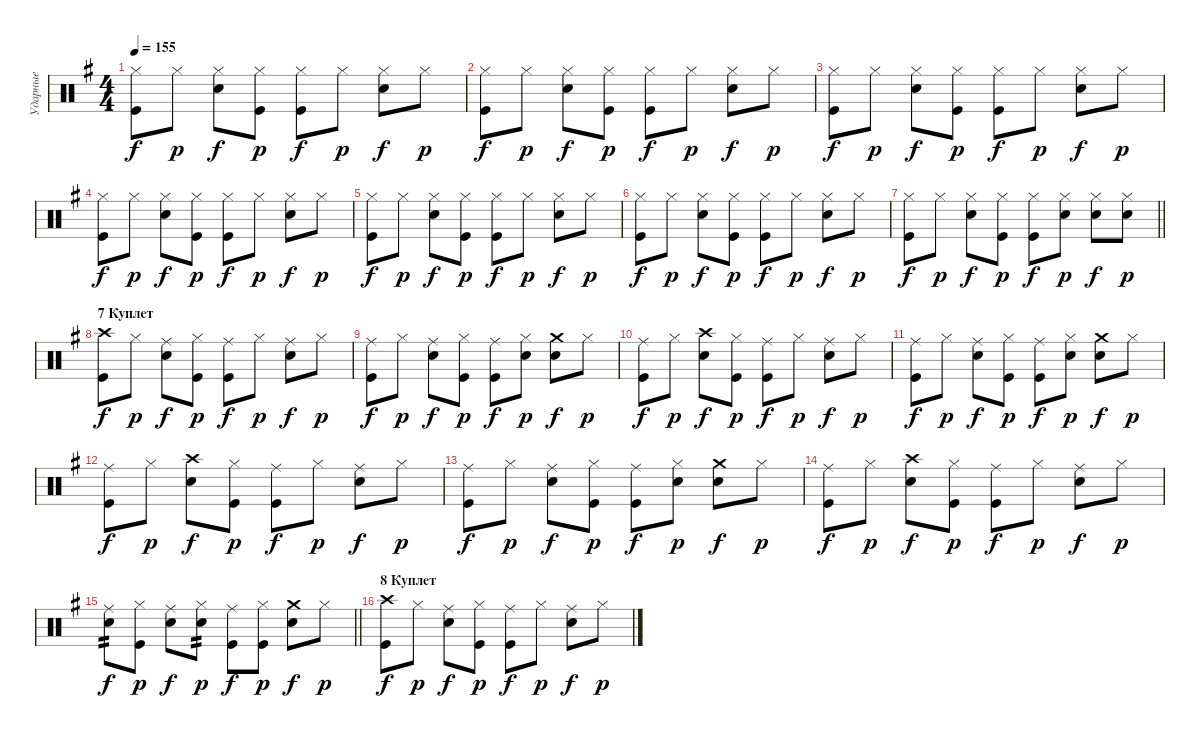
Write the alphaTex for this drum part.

\track ("Ударные" "Ударные") {instrument percussion}
\staff {score}
\articulation defaults
\ts (4 4)
\tempo 155
\clef neutral
\ks eminor
("Hi-Hat (closed)" "Kick (hit)").8{dy f} "Hi-Hat (closed)".8{dy p} ("Hi-Hat (closed)" "Snare (hit) 2").8{dy f} ("Hi-Hat (closed)" "Kick (hit)").8{dy p} ("Hi-Hat (closed)" "Kick (hit)").8{dy f} "Hi-Hat (closed)".8{dy p} ("Hi-Hat (closed)" "Snare (hit) 2").8{dy f} "Hi-Hat (closed)".8{dy p} |
("Hi-Hat (closed)" "Kick (hit)").8{dy f} "Hi-Hat (closed)".8{dy p} ("Hi-Hat (closed)" "Snare (hit) 2").8{dy f} ("Hi-Hat (closed)" "Kick (hit)").8{dy p} ("Hi-Hat (closed)" "Kick (hit)").8{dy f} "Hi-Hat (closed)".8{dy p} ("Hi-Hat (closed)" "Snare (hit) 2").8{dy f} "Hi-Hat (closed)".8{dy p} |
("Hi-Hat (closed)" "Kick (hit)").8{dy f} "Hi-Hat (closed)".8{dy p} ("Hi-Hat (closed)" "Snare (hit) 2").8{dy f} ("Hi-Hat (closed)" "Kick (hit)").8{dy p} ("Hi-Hat (closed)" "Kick (hit)").8{dy f} "Hi-Hat (closed)".8{dy p} ("Hi-Hat (closed)" "Snare (hit) 2").8{dy f} "Hi-Hat (closed)".8{dy p} |
("Hi-Hat (closed)" "Kick (hit)").8{dy f} "Hi-Hat (closed)".8{dy p} ("Hi-Hat (closed)" "Snare (hit) 2").8{dy f} ("Hi-Hat (closed)" "Kick (hit)").8{dy p} ("Hi-Hat (closed)" "Kick (hit)").8{dy f} "Hi-Hat (closed)".8{dy p} ("Hi-Hat (closed)" "Snare (hit) 2").8{dy f} "Hi-Hat (closed)".8{dy p} |
("Hi-Hat (closed)" "Kick (hit)").8{dy f} "Hi-Hat (closed)".8{dy p} ("Hi-Hat (closed)" "Snare (hit) 2").8{dy f} ("Hi-Hat (closed)" "Kick (hit)").8{dy p} ("Hi-Hat (closed)" "Kick (hit)").8{dy f} "Hi-Hat (closed)".8{dy p} ("Hi-Hat (closed)" "Snare (hit) 2").8{dy f} "Hi-Hat (closed)".8{dy p} |
("Hi-Hat (closed)" "Kick (hit)").8{dy f} "Hi-Hat (closed)".8{dy p} ("Hi-Hat (closed)" "Snare (hit) 2").8{dy f} ("Hi-Hat (closed)" "Kick (hit)").8{dy p} ("Hi-Hat (closed)" "Kick (hit)").8{dy f} "Hi-Hat (closed)".8{dy p} ("Hi-Hat (closed)" "Snare (hit) 2").8{dy f} "Hi-Hat (closed)".8{dy p} |
\barLineRight lightlight
("Hi-Hat (closed)" "Kick (hit)").8{dy f} "Hi-Hat (closed)".8{dy p} ("Hi-Hat (closed)" "Snare (hit) 2").8{dy f} ("Hi-Hat (closed)" "Kick (hit)").8{dy p} ("Hi-Hat (closed)" "Kick (hit)").8{dy f} ("Hi-Hat (closed)" "Snare (hit) 2").8{dy p} ("Hi-Hat (closed)" "Snare (hit) 2").8{dy f} ("Hi-Hat (closed)" "Snare (hit) 2").8{dy p} |
\section ("" "7 Куплет")
("Crash high (hit)" "Kick (hit)").8{dy f} "Hi-Hat (closed)".8{dy p} ("Ride (middle)" "Snare (hit) 2").8{dy f} ("Hi-Hat (closed)" "Kick (hit)").8{dy p} ("Ride (middle)" "Kick (hit)").8{dy f} "Hi-Hat (closed)".8{dy p} ("Ride (middle)" "Snare (hit) 2").8{dy f} "Hi-Hat (closed)".8{dy p} |
("Ride (middle)" "Kick (hit)").8{dy f} "Hi-Hat (closed)".8{dy p} ("Ride (middle)" "Snare (hit) 2").8{dy f} ("Hi-Hat (closed)" "Kick (hit)").8{dy p} ("Ride (middle)" "Kick (hit)").8{dy f} ("Hi-Hat (closed)" "Snare (hit) 2").8{dy p} ("Crash medium (hit)" "Snare (hit) 2").8{dy f} "Hi-Hat (closed)".8{dy p} |
("Ride (middle)" "Kick (hit)").8{dy f} "Hi-Hat (closed)".8{dy p} ("Crash high (hit)" "Snare (hit) 2").8{dy f} ("Hi-Hat (closed)" "Kick (hit)").8{dy p} ("Ride (middle)" "Kick (hit)").8{dy f} "Hi-Hat (closed)".8{dy p} ("Ride (middle)" "Snare (hit) 2").8{dy f} "Hi-Hat (closed)".8{dy p} |
("Ride (middle)" "Kick (hit)").8{dy f} "Hi-Hat (closed)".8{dy p} ("Ride (middle)" "Snare (hit) 2").8{dy f} ("Hi-Hat (closed)" "Kick (hit)").8{dy p} ("Ride (middle)" "Kick (hit)").8{dy f} ("Hi-Hat (closed)" "Snare (hit) 2").8{dy p} ("Crash medium (hit)" "Snare (hit) 2").8{dy f} "Hi-Hat (closed)".8{dy p} |
("Ride (middle)" "Kick (hit)").8{dy f} "Hi-Hat (closed)".8{dy p} ("Crash high (hit)" "Snare (hit) 2").8{dy f} ("Hi-Hat (closed)" "Kick (hit)").8{dy p} ("Ride (middle)" "Kick (hit)").8{dy f} "Hi-Hat (closed)".8{dy p} ("Ride (middle)" "Snare (hit) 2").8{dy f} "Hi-Hat (closed)".8{dy p} |
("Ride (middle)" "Kick (hit)").8{dy f} "Hi-Hat (closed)".8{dy p} ("Ride (middle)" "Snare (hit) 2").8{dy f} ("Hi-Hat (closed)" "Kick (hit)").8{dy p} ("Ride (middle)" "Kick (hit)").8{dy f} ("Hi-Hat (closed)" "Snare (hit) 2").8{dy p} ("Crash medium (hit)" "Snare (hit) 2").8{dy f} "Hi-Hat (closed)".8{dy p} |
("Ride (middle)" "Kick (hit)").8{dy f} "Hi-Hat (closed)".8{dy p} ("Crash high (hit)" "Snare (hit) 2").8{dy f} ("Hi-Hat (closed)" "Kick (hit)").8{dy p} ("Ride (middle)" "Kick (hit)").8{dy f} "Hi-Hat (closed)".8{dy p} ("Ride (middle)" "Snare (hit) 2").8{dy f} "Hi-Hat (closed)".8{dy p} |
\barLineRight lightlight
("Ride (middle)" "Snare (hit) 2").8{tp 2 dy f} ("Hi-Hat (closed)" "Kick (hit)").8{dy p} ("Ride (middle)" "Snare (hit) 2").8{dy f} ("Hi-Hat (closed)" "Snare (hit) 2").8{tp 2 dy p} ("Ride (middle)" "Kick (hit)").8{dy f} ("Hi-Hat (closed)" "Kick (hit)").8{dy p} ("Crash medium (hit)" "Snare (hit) 2").8{dy f} "Hi-Hat (closed)".8{dy p} |
\section ("" "8 Куплет")
("Crash high (hit)" "Kick (hit)").8{dy f} "Hi-Hat (closed)".8{dy p} ("Ride (middle)" "Snare (hit) 2").8{dy f} ("Hi-Hat (closed)" "Kick (hit)").8{dy p} ("Ride (middle)" "Kick (hit)").8{dy f} "Hi-Hat (closed)".8{dy p} ("Ride (middle)" "Snare (hit) 2").8{dy f} "Hi-Hat (closed)".8{dy p}
